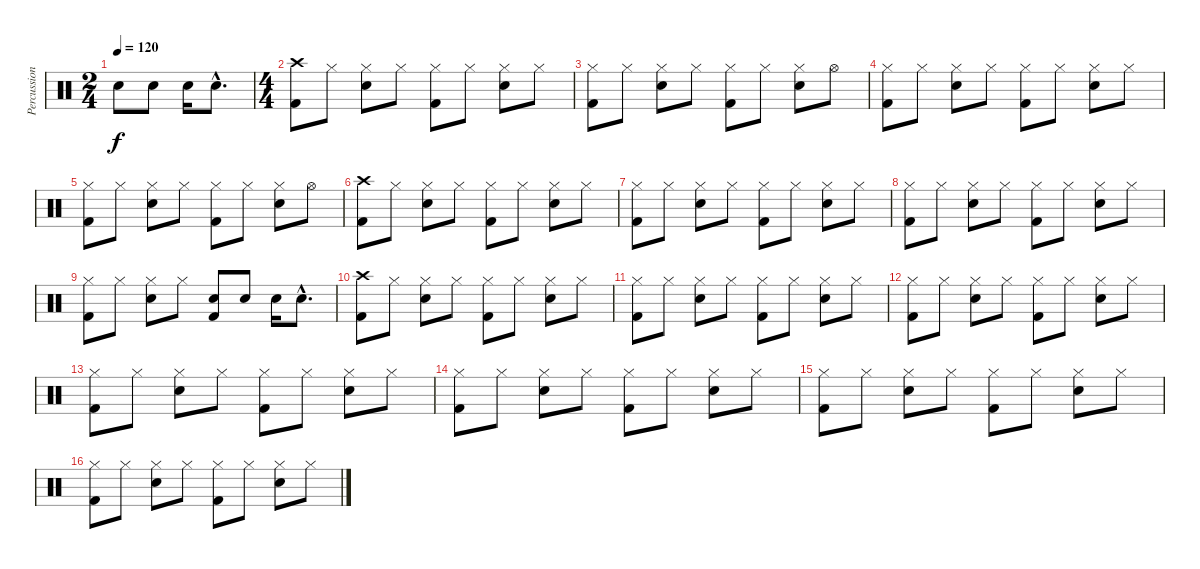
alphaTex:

\track ("Percussion" "Percussion") {instrument percussion}
\staff {score}
\articulation defaults
\ts (2 4)
\tempo 120
\clef neutral
\ks c "Electric Snare (hit)".8{dy f} "Electric Snare (hit)".8 "Electric Snare (hit)".16 "Electric Snare (hit)"{hac}.8{d}
|
\ts (4 4)
("Crash high (hit)" "Kick (hit) 2").8 "Hi-Hat (closed)".8 ("Hi-Hat (closed)" "Electric Snare (hit)").8 "Hi-Hat (closed)".8 ("Hi-Hat (closed)" "Kick (hit) 2").8 "Hi-Hat (closed)".8 ("Hi-Hat (closed)" "Electric Snare (hit)").8 "Hi-Hat (closed)".8 |
("Hi-Hat (closed)" "Kick (hit) 2").8 "Hi-Hat (closed)".8 ("Hi-Hat (closed)" "Electric Snare (hit)").8 "Hi-Hat (closed)".8 ("Hi-Hat (closed)" "Kick (hit) 2").8 "Hi-Hat (closed)".8 ("Hi-Hat (closed)" "Electric Snare (hit)").8 "Hi-Hat (open)".8 |
("Hi-Hat (closed)" "Kick (hit) 2").8 "Hi-Hat (closed)".8 ("Hi-Hat (closed)" "Electric Snare (hit)").8 "Hi-Hat (closed)".8 ("Hi-Hat (closed)" "Kick (hit) 2").8 "Hi-Hat (closed)".8 ("Hi-Hat (closed)" "Electric Snare (hit)").8 "Hi-Hat (closed)".8 |
("Hi-Hat (closed)" "Kick (hit) 2").8 "Hi-Hat (closed)".8 ("Hi-Hat (closed)" "Electric Snare (hit)").8 "Hi-Hat (closed)".8 ("Hi-Hat (closed)" "Kick (hit) 2").8 "Hi-Hat (closed)".8 ("Hi-Hat (closed)" "Electric Snare (hit)").8 "Hi-Hat (open)".8 |
("Crash high (hit)" "Kick (hit) 2").8 "Hi-Hat (closed)".8 ("Hi-Hat (closed)" "Electric Snare (hit)").8 "Hi-Hat (closed)".8 ("Hi-Hat (closed)" "Kick (hit) 2").8 "Hi-Hat (closed)".8 ("Hi-Hat (closed)" "Electric Snare (hit)").8 "Hi-Hat (closed)".8 |
("Hi-Hat (closed)" "Kick (hit) 2").8 "Hi-Hat (closed)".8 ("Hi-Hat (closed)" "Electric Snare (hit)").8 "Hi-Hat (closed)".8 ("Hi-Hat (closed)" "Kick (hit) 2").8 "Hi-Hat (closed)".8 ("Hi-Hat (closed)" "Electric Snare (hit)").8 "Hi-Hat (closed)".8 |
("Hi-Hat (closed)" "Kick (hit) 2").8 "Hi-Hat (closed)".8 ("Hi-Hat (closed)" "Electric Snare (hit)").8 "Hi-Hat (closed)".8 ("Hi-Hat (closed)" "Kick (hit) 2").8 "Hi-Hat (closed)".8 ("Hi-Hat (closed)" "Electric Snare (hit)").8 "Hi-Hat (closed)".8 |
("Hi-Hat (closed)" "Kick (hit) 2").8 "Hi-Hat (closed)".8 ("Hi-Hat (closed)" "Electric Snare (hit)").8 "Hi-Hat (closed)".8 ("Electric Snare (hit)" "Kick (hit) 2").8 "Electric Snare (hit)".8 "Electric Snare (hit)".16 "Electric Snare (hit)"{hac}.8{d} |
("Crash high (hit)" "Kick (hit) 2").8 "Hi-Hat (closed)".8 ("Hi-Hat (closed)" "Electric Snare (hit)").8 "Hi-Hat (closed)".8 ("Hi-Hat (closed)" "Kick (hit) 2").8 "Hi-Hat (closed)".8 ("Hi-Hat (closed)" "Electric Snare (hit)").8 "Hi-Hat (closed)".8 |
("Hi-Hat (closed)" "Kick (hit) 2").8 "Hi-Hat (closed)".8 ("Hi-Hat (closed)" "Electric Snare (hit)").8 "Hi-Hat (closed)".8 ("Hi-Hat (closed)" "Kick (hit) 2").8 "Hi-Hat (closed)".8 ("Hi-Hat (closed)" "Electric Snare (hit)").8 "Hi-Hat (closed)".8 |
("Hi-Hat (closed)" "Kick (hit) 2").8 "Hi-Hat (closed)".8 ("Hi-Hat (closed)" "Electric Snare (hit)").8 "Hi-Hat (closed)".8 ("Hi-Hat (closed)" "Kick (hit) 2").8 "Hi-Hat (closed)".8 ("Hi-Hat (closed)" "Electric Snare (hit)").8 "Hi-Hat (closed)".8 |
("Hi-Hat (closed)" "Kick (hit) 2").8 "Hi-Hat (closed)".8 ("Hi-Hat (closed)" "Electric Snare (hit)").8 "Hi-Hat (closed)".8 ("Hi-Hat (closed)" "Kick (hit) 2").8 "Hi-Hat (closed)".8 ("Hi-Hat (closed)" "Electric Snare (hit)").8 "Hi-Hat (closed)".8 |
("Hi-Hat (closed)" "Kick (hit) 2").8 "Hi-Hat (closed)".8 ("Hi-Hat (closed)" "Electric Snare (hit)").8 "Hi-Hat (closed)".8 ("Hi-Hat (closed)" "Kick (hit) 2").8 "Hi-Hat (closed)".8 ("Hi-Hat (closed)" "Electric Snare (hit)").8 "Hi-Hat (closed)".8 |
("Hi-Hat (closed)" "Kick (hit) 2").8 "Hi-Hat (closed)".8 ("Hi-Hat (closed)" "Electric Snare (hit)").8 "Hi-Hat (closed)".8 ("Hi-Hat (closed)" "Kick (hit) 2").8 "Hi-Hat (closed)".8 ("Hi-Hat (closed)" "Electric Snare (hit)").8 "Hi-Hat (closed)".8 |
("Hi-Hat (closed)" "Kick (hit) 2").8 "Hi-Hat (closed)".8 ("Hi-Hat (closed)" "Electric Snare (hit)").8 "Hi-Hat (closed)".8 ("Hi-Hat (closed)" "Kick (hit) 2").8 "Hi-Hat (closed)".8 ("Hi-Hat (closed)" "Electric Snare (hit)").8 "Hi-Hat (closed)".8
